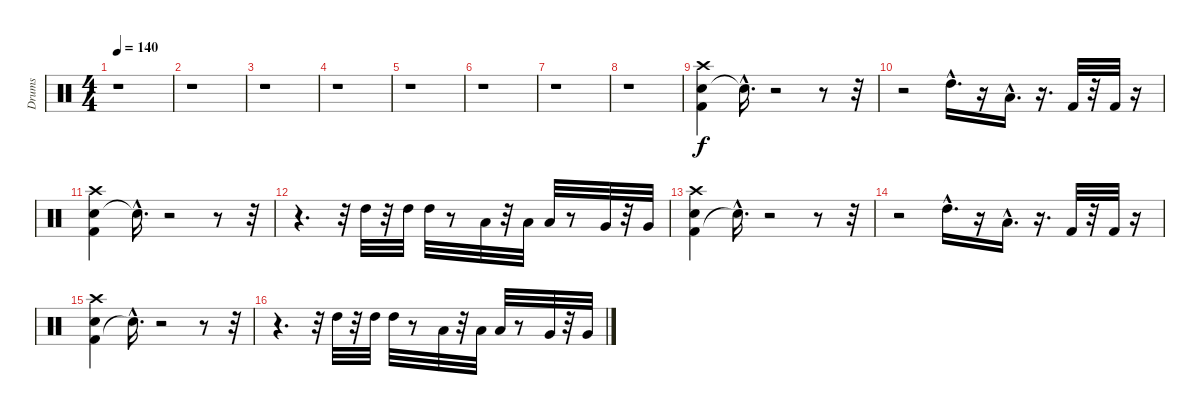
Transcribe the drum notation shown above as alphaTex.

\track ("Drums" "Drums") {instrument percussion}
\staff {score}
\articulation defaults
\ts (4 4)
\tempo 140
\clef neutral
\ks c
r.1{dy f} |
r.1 |
r.1 |
r.1 |
r.1 |
r.1 |
r.1 |
r.1 |
("Snare (hit) 2" "Kick (hit) 2" "Crash high (hit)").4 "Snare (hit)"{hac t}.16{d} r.2 r.8 r.32 |
r.2 "High Tom (hit)"{hac}.16{d} r.16 "Low Tom (hit)"{hac}.16{d} r.16{d} "Kick (hit) 2".32 r.32 "Kick (hit) 2".32 r.16 |
("Snare (hit) 2" "Kick (hit) 2" "Crash high (hit)").4 "Snare (hit)"{hac t}.16{d} r.2 r.8 r.32 |
r.4{d} r.32 "High Tom (hit)".32 r.32 "High Tom (hit)".32 "High Tom (hit)".32 r.8 "Low Tom (hit)".32 r.32 "Low Tom (hit)".32 "Low Tom (hit)".32 r.8 "Very Low Tom (hit)".32 r.32 "Very Low Tom (hit)".32 |
("Kick (hit) 2" "Crash high (hit)" "Snare (hit) 2").4 "Snare (hit)"{hac t}.16{d} r.2 r.8 r.32 |
r.2 "High Tom (hit)"{hac}.16{d} r.16 "Low Tom (hit)"{hac}.16{d} r.16{d} "Kick (hit) 2".32 r.32 "Kick (hit) 2".32 r.16 |
("Kick (hit) 2" "Snare (hit) 2" "Crash high (hit)").4 "Snare (hit)"{hac t}.16{d} r.2 r.8 r.32 |
r.4{d} r.32 "High Tom (hit)".32 r.32 "High Tom (hit)".32 "High Tom (hit)".32 r.8 "Low Tom (hit)".32 r.32 "Low Tom (hit)".32 "Low Tom (hit)".32 r.8 "Very Low Tom (hit)".32 r.32 "Very Low Tom (hit)".32
